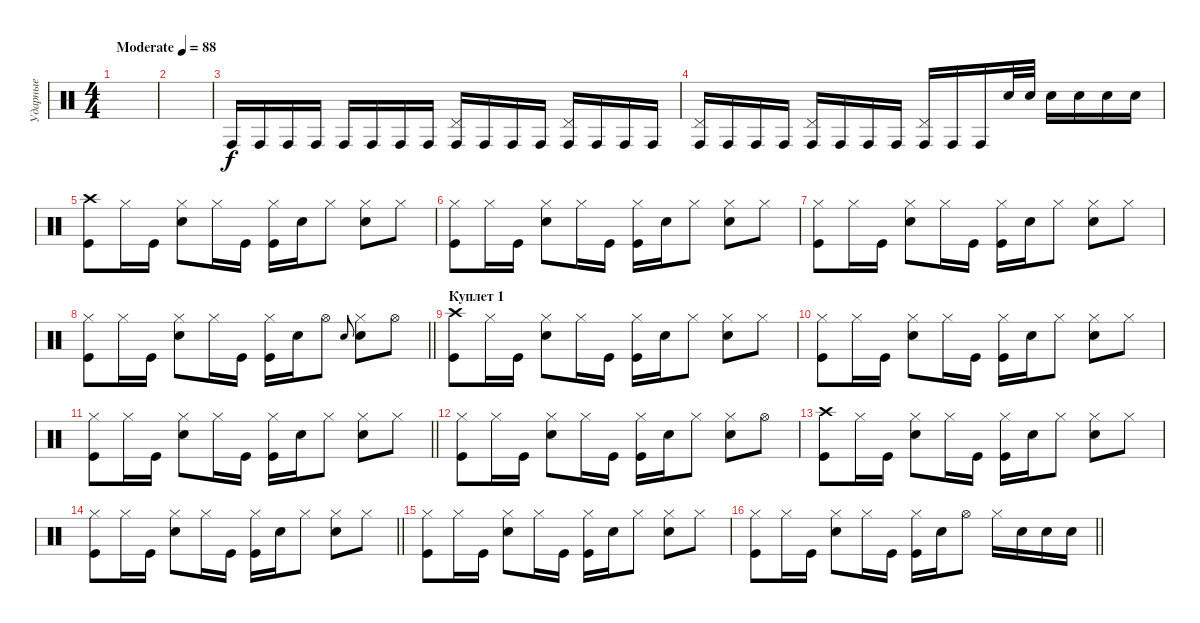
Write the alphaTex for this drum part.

\track ("Ударные" "Ударные") {instrument percussion}
\staff {score}
\articulation defaults
\ts (4 4)
\tempo (88 "Moderate")
\clef neutral
\ks c
|
|
"Conga high (hit)".16 "Conga high (hit)".16 "Conga high (hit)".16 "Conga high (hit)".16 "Conga high (hit)".16 "Conga high (hit)".16 "Conga high (hit)".16 "Conga high (hit)".16 ("Pedal Hi-Hat (hit)" "Conga high (hit)").16 "Conga high (hit)".16 "Conga high (hit)".16 "Conga high (hit)".16 ("Pedal Hi-Hat (hit)" "Conga high (hit)").16 "Conga high (hit)".16 "Conga high (hit)".16 "Conga high (hit)".16 |
("Pedal Hi-Hat (hit)" "Conga high (hit)").16 "Conga high (hit)".16 "Conga high (hit)".16 "Conga high (hit)".16 ("Pedal Hi-Hat (hit)" "Conga high (hit)").16 "Conga high (hit)".16 "Conga high (hit)".16 "Conga high (hit)".16 ("Pedal Hi-Hat (hit)" "Conga high (hit)").16 "Conga high (hit)".16 "Conga high (hit)".16 "Snare (hit) 2".32 "Snare (hit) 2".32 "Snare (hit) 2".16 "Snare (hit) 2".16 "Snare (hit) 2".16 "Snare (hit) 2".16 |
("Crash high (hit)" "Kick (hit)").8 "Hi-Hat (closed)".16 "Kick (hit)".16 ("Hi-Hat (closed)" "Snare (hit) 2").8 "Hi-Hat (closed)".16 "Kick (hit)".16 ("Hi-Hat (closed)" "Kick (hit)").16 "Snare (hit) 2".16 "Hi-Hat (closed)".8 ("Hi-Hat (closed)" "Snare (hit) 2").8 "Hi-Hat (closed)".8 |
("Hi-Hat (closed)" "Kick (hit)").8 "Hi-Hat (closed)".16 "Kick (hit)".16 ("Hi-Hat (closed)" "Snare (hit) 2").8 "Hi-Hat (closed)".16 "Kick (hit)".16 ("Hi-Hat (closed)" "Kick (hit)").16 "Snare (hit) 2".16 "Hi-Hat (closed)".8 ("Hi-Hat (closed)" "Snare (hit) 2").8 "Hi-Hat (closed)".8 |
("Hi-Hat (closed)" "Kick (hit)").8 "Hi-Hat (closed)".16 "Kick (hit)".16 ("Hi-Hat (closed)" "Snare (hit) 2").8 "Hi-Hat (closed)".16 "Kick (hit)".16 ("Hi-Hat (closed)" "Kick (hit)").16 "Snare (hit) 2".16 "Hi-Hat (closed)".8 ("Hi-Hat (closed)" "Snare (hit) 2").8 "Hi-Hat (closed)".8 |
\barLineRight lightlight
("Hi-Hat (closed)" "Kick (hit)").8 "Hi-Hat (closed)".16 "Kick (hit)".16 ("Hi-Hat (closed)" "Snare (hit) 2").8 "Hi-Hat (closed)".16 "Kick (hit)".16 ("Hi-Hat (closed)" "Kick (hit)").16 "Snare (hit) 2".16 "Hi-Hat (open)".8 "Snare (hit) 2".8{gr onbeat} ("Hi-Hat (closed)" "Snare (hit) 2").8 "Hi-Hat (open)".8 |
\section ("" "Куплет 1")
("Crash high (hit)" "Kick (hit)").8 "Hi-Hat (closed)".16 "Kick (hit)".16 ("Hi-Hat (closed)" "Snare (hit) 2").8 "Hi-Hat (closed)".16 "Kick (hit)".16 ("Hi-Hat (closed)" "Kick (hit)").16 "Snare (hit) 2".16 "Hi-Hat (closed)".8 ("Hi-Hat (closed)" "Snare (hit) 2").8 "Hi-Hat (closed)".8 |
("Hi-Hat (closed)" "Kick (hit)").8 "Hi-Hat (closed)".16 "Kick (hit)".16 ("Hi-Hat (closed)" "Snare (hit) 2").8 "Hi-Hat (closed)".16 "Kick (hit)".16 ("Hi-Hat (closed)" "Kick (hit)").16 "Snare (hit) 2".16 "Hi-Hat (closed)".8 ("Hi-Hat (closed)" "Snare (hit) 2").8 "Hi-Hat (closed)".8 |
\barLineRight lightlight
("Hi-Hat (closed)" "Kick (hit)").8 "Hi-Hat (closed)".16 "Kick (hit)".16 ("Hi-Hat (closed)" "Snare (hit) 2").8 "Hi-Hat (closed)".16 "Kick (hit)".16 ("Hi-Hat (closed)" "Kick (hit)").16 "Snare (hit) 2".16 "Hi-Hat (closed)".8 ("Hi-Hat (closed)" "Snare (hit) 2").8 "Hi-Hat (closed)".8 |
("Hi-Hat (closed)" "Kick (hit)").8 "Hi-Hat (closed)".16 "Kick (hit)".16 ("Hi-Hat (closed)" "Snare (hit) 2").8 "Hi-Hat (closed)".16 "Kick (hit)".16 ("Hi-Hat (closed)" "Kick (hit)").16 "Snare (hit) 2".16 "Hi-Hat (closed)".8 ("Hi-Hat (closed)" "Snare (hit) 2").8 "Hi-Hat (open)".8 |
("Crash high (hit)" "Kick (hit)").8 "Hi-Hat (closed)".16 "Kick (hit)".16 ("Hi-Hat (closed)" "Snare (hit) 2").8 "Hi-Hat (closed)".16 "Kick (hit)".16 ("Hi-Hat (closed)" "Kick (hit)").16 "Snare (hit) 2".16 "Hi-Hat (closed)".8 ("Hi-Hat (closed)" "Snare (hit) 2").8 "Hi-Hat (closed)".8 |
\barLineRight lightlight
("Hi-Hat (closed)" "Kick (hit)").8 "Hi-Hat (closed)".16 "Kick (hit)".16 ("Hi-Hat (closed)" "Snare (hit) 2").8 "Hi-Hat (closed)".16 "Kick (hit)".16 ("Hi-Hat (closed)" "Kick (hit)").16 "Snare (hit) 2".16 "Hi-Hat (closed)".8 ("Hi-Hat (closed)" "Snare (hit) 2").8 "Hi-Hat (closed)".8 |
("Hi-Hat (closed)" "Kick (hit)").8 "Hi-Hat (closed)".16 "Kick (hit)".16 ("Hi-Hat (closed)" "Snare (hit) 2").8 "Hi-Hat (closed)".16 "Kick (hit)".16 ("Hi-Hat (closed)" "Kick (hit)").16 "Snare (hit) 2".16 "Hi-Hat (closed)".8 ("Hi-Hat (closed)" "Snare (hit) 2").8 "Hi-Hat (closed)".8 |
\barLineRight lightlight
("Hi-Hat (closed)" "Kick (hit)").8 "Hi-Hat (closed)".16 "Kick (hit)".16 ("Hi-Hat (closed)" "Snare (hit) 2").8 "Hi-Hat (closed)".16 "Kick (hit)".16 ("Hi-Hat (closed)" "Kick (hit)").16 "Snare (hit) 2".16 "Hi-Hat (open)".8 "Hi-Hat (closed)".16 "Snare (hit) 2".16 "Snare (hit) 2".16 "Snare (hit) 2".16
